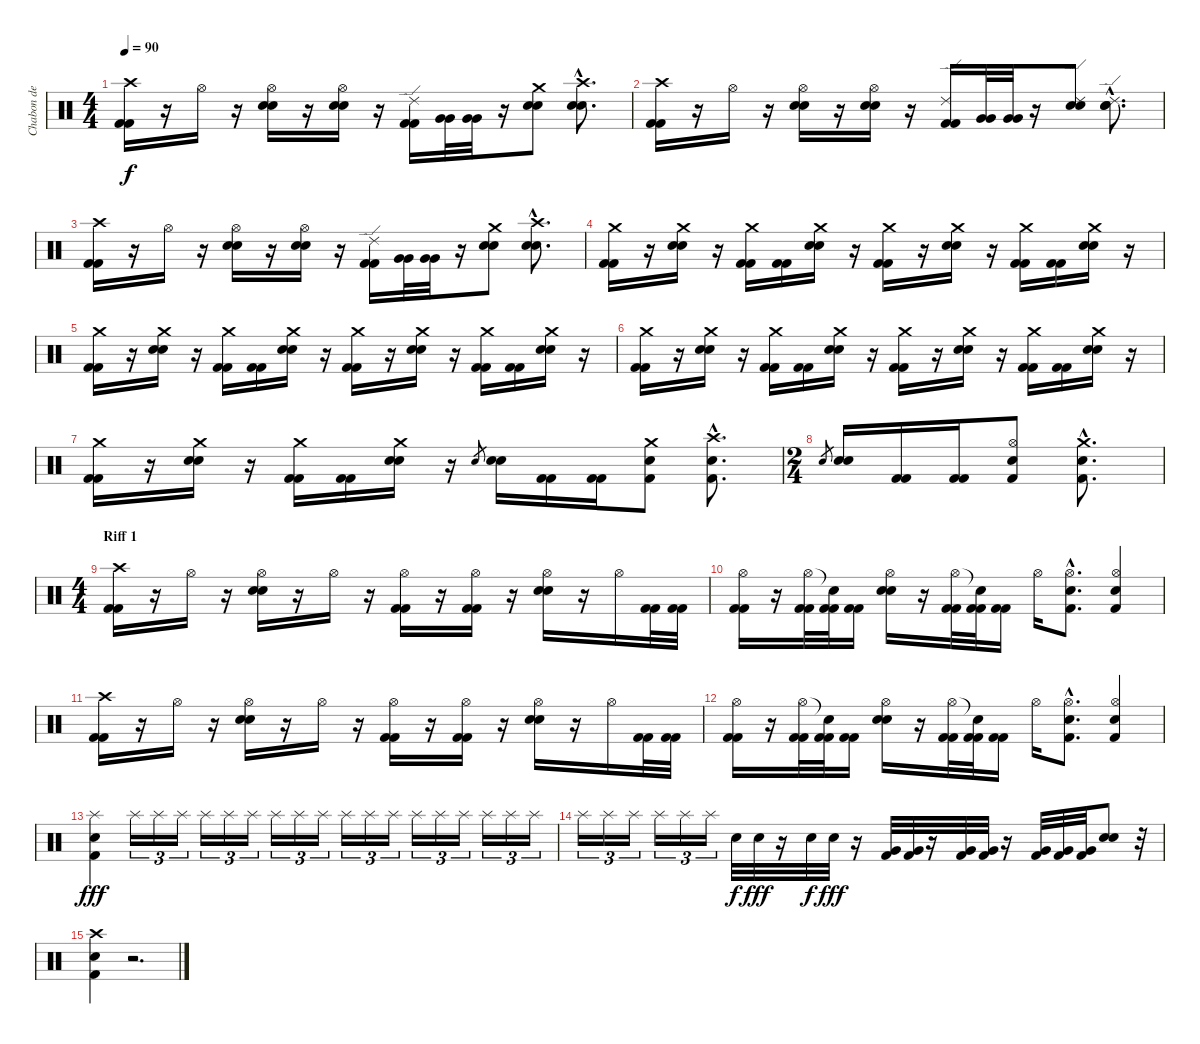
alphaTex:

\track ("Chabon de Vorax" "Chabon de ") {instrument percussion}
\staff {score}
\articulation defaults
\ts (4 4)
\tempo 90
\clef neutral
\ks c
("Crash high (hit)" "Kick (hit) 2" "Kick (hit) 2").16{dy f} r.16 "Hi-Hat (open)".16 r.16 ("Hi-Hat (open)" "Snare (hit) 2" "Snare (hit) 2").16 r.16 ("Hi-Hat (open)" "Snare (hit) 2" "Snare (hit) 2").16 r.16 ("Ride (edge) 2" "Kick (hit) 2" "Kick (hit) 2").16 ("Very Low Tom (hit)" "Very Low Tom (hit)").32 ("Very Low Tom (hit)" "Very Low Tom (hit)").32 r.16 ("Crash medium (hit)" "Snare (hit) 2" "Snare (hit) 2").8 ("Crash high (hit)"{hac} "Snare (hit) 2"{hac} "Snare (hit) 2"{hac}).8{d} |
("Crash high (hit)" "Kick (hit) 2" "Kick (hit) 2").16 r.16 "Hi-Hat (open)".16 r.16 ("Hi-Hat (open)" "Snare (hit) 2" "Snare (hit) 2").16 r.16 ("Hi-Hat (open)" "Snare (hit) 2" "Snare (hit) 2").16 r.16 ("Ride (edge) 2" "Kick (hit) 2" "Kick (hit) 2").16 ("Very Low Tom (hit)" "Very Low Tom (hit)").32 ("Very Low Tom (hit)" "Very Low Tom (hit)").32 r.16 ("Ride (edge) 2" "Snare (hit) 2" "Snare (hit) 2").8 ("Ride (edge) 2"{hac} "Snare (hit) 2"{hac} "Snare (hit) 2"{hac}).8{d} |
("Crash high (hit)" "Kick (hit) 2" "Kick (hit) 2").16 r.16 "Hi-Hat (open)".16 r.16 ("Hi-Hat (open)" "Snare (hit) 2" "Snare (hit) 2").16 r.16 ("Hi-Hat (open)" "Snare (hit) 2" "Snare (hit) 2").16 r.16 ("Ride (edge) 2" "Kick (hit) 2" "Kick (hit) 2").16 ("Very Low Tom (hit)" "Very Low Tom (hit)").32 ("Very Low Tom (hit)" "Very Low Tom (hit)").32 r.16 ("Crash medium (hit)" "Snare (hit) 2" "Snare (hit) 2").8 ("Crash high (hit)"{hac} "Snare (hit) 2"{hac} "Snare (hit) 2"{hac}).8{d} |
("Crash medium (hit)" "Kick (hit) 2" "Kick (hit) 2").16 r.16 ("Crash medium (hit)" "Snare (hit) 2" "Snare (hit) 2").16 r.16 ("Crash medium (hit)" "Kick (hit) 2" "Kick (hit) 2").16 ("Kick (hit) 2" "Kick (hit) 2").16 ("Crash medium (hit)" "Snare (hit) 2" "Snare (hit) 2").16 r.16 ("Crash medium (hit)" "Kick (hit) 2" "Kick (hit) 2").16 r.16 ("Crash medium (hit)" "Snare (hit) 2" "Snare (hit) 2").16 r.16 ("Crash medium (hit)" "Kick (hit) 2" "Kick (hit) 2").16 ("Kick (hit) 2" "Kick (hit) 2").16 ("Crash medium (hit)" "Snare (hit) 2" "Snare (hit) 2").16 r.16 |
("Crash medium (hit)" "Kick (hit) 2" "Kick (hit) 2").16 r.16 ("Crash medium (hit)" "Snare (hit) 2" "Snare (hit) 2").16 r.16 ("Crash medium (hit)" "Kick (hit) 2" "Kick (hit) 2").16 ("Kick (hit) 2" "Kick (hit) 2").16 ("Crash medium (hit)" "Snare (hit) 2" "Snare (hit) 2").16 r.16 ("Crash medium (hit)" "Kick (hit) 2" "Kick (hit) 2").16 r.16 ("Crash medium (hit)" "Snare (hit) 2" "Snare (hit) 2").16 r.16 ("Crash medium (hit)" "Kick (hit) 2" "Kick (hit) 2").16 ("Kick (hit) 2" "Kick (hit) 2").16 ("Crash medium (hit)" "Snare (hit) 2" "Snare (hit) 2").16 r.16 |
("Crash medium (hit)" "Kick (hit) 2" "Kick (hit) 2").16 r.16 ("Crash medium (hit)" "Snare (hit) 2" "Snare (hit) 2").16 r.16 ("Crash medium (hit)" "Kick (hit) 2" "Kick (hit) 2").16 ("Kick (hit) 2" "Kick (hit) 2").16 ("Crash medium (hit)" "Snare (hit) 2" "Snare (hit) 2").16 r.16 ("Crash medium (hit)" "Kick (hit) 2" "Kick (hit) 2").16 r.16 ("Crash medium (hit)" "Snare (hit) 2" "Snare (hit) 2").16 r.16 ("Crash medium (hit)" "Kick (hit) 2" "Kick (hit) 2").16 ("Kick (hit) 2" "Kick (hit) 2").16 ("Crash medium (hit)" "Snare (hit) 2" "Snare (hit) 2").16 r.16 |
("Crash medium (hit)" "Kick (hit) 2" "Kick (hit) 2").16 r.16 ("Crash medium (hit)" "Snare (hit) 2" "Snare (hit) 2").16 r.16 ("Crash medium (hit)" "Kick (hit) 2" "Kick (hit) 2").16 ("Kick (hit) 2" "Kick (hit) 2").16 ("Crash medium (hit)" "Snare (hit) 2" "Snare (hit) 2").16 r.16 "Snare (hit) 2".8{gr} ("Snare (hit) 2" "Snare (hit) 2").16 ("Kick (hit) 2" "Kick (hit) 2").16 ("Kick (hit) 2" "Kick (hit) 2").16 ("Crash medium (hit)" "Snare (hit) 2" "Kick (hit) 2").8 ("Crash high (hit)"{hac} "Snare (hit) 2"{hac} "Kick (hit) 2"{hac}).8{d} |
\ts (2 4)
"Snare (hit) 2".8{gr} ("Snare (hit) 2" "Snare (hit) 2").16 ("Kick (hit) 2" "Kick (hit) 2").16 ("Kick (hit) 2" "Kick (hit) 2").16 ("Hi-Hat (open)" "Snare (hit) 2" "Kick (hit) 2").8 ("Crash medium (hit)"{hac} "Snare (hit) 2"{hac} "Kick (hit) 2"{hac}).8{d} |
\ts (4 4)
\section ("" "Riff 1")
("Crash high (hit)" "Kick (hit) 2" "Kick (hit) 2").16 r.16 "Hi-Hat (open)".16 r.16 ("Hi-Hat (open)" "Snare (hit) 2" "Snare (hit) 2").16 r.16 "Hi-Hat (open)".16 r.16 ("Hi-Hat (open)" "Kick (hit) 2" "Kick (hit) 2").16 r.16 ("Hi-Hat (open)" "Kick (hit) 2" "Kick (hit) 2").16 r.16 ("Hi-Hat (open)" "Snare (hit) 2" "Snare (hit) 2").16 r.16 "Hi-Hat (open)".16 ("Kick (hit) 2" "Kick (hit) 2").32 ("Kick (hit) 2" "Kick (hit) 2").32 |
("Hi-Hat (open)" "Kick (hit) 2" "Kick (hit) 2").16 r.16 ("Hi-Hat (open)" "Kick (hit) 2" "Kick (hit) 2").32 ("Snare (hit)"{t} "Kick (hit) 2" "Kick (hit) 2").32 ("Kick (hit) 2" "Kick (hit) 2").16 ("Hi-Hat (open)" "Snare (hit) 2" "Snare (hit) 2").16 r.16 ("Hi-Hat (open)" "Kick (hit) 2" "Kick (hit) 2").32 ("Snare (hit)"{t} "Kick (hit) 2" "Kick (hit) 2").32 ("Kick (hit) 2" "Kick (hit) 2").16 "Hi-Hat (open)".16 ("Hi-Hat (open)"{hac} "Snare (hit) 2"{hac} "Kick (hit) 2"{hac}).8{d} ("Hi-Hat (open)" "Snare (hit) 2" "Kick (hit) 2").4 |
("Crash high (hit)" "Kick (hit) 2" "Kick (hit) 2").16 r.16 "Hi-Hat (open)".16 r.16 ("Hi-Hat (open)" "Snare (hit) 2" "Snare (hit) 2").16 r.16 "Hi-Hat (open)".16 r.16 ("Hi-Hat (open)" "Kick (hit) 2" "Kick (hit) 2").16 r.16 ("Hi-Hat (open)" "Kick (hit) 2" "Kick (hit) 2").16 r.16 ("Hi-Hat (open)" "Snare (hit) 2" "Snare (hit) 2").16 r.16 "Hi-Hat (open)".16 ("Kick (hit) 2" "Kick (hit) 2").32 ("Kick (hit) 2" "Kick (hit) 2").32 |
("Hi-Hat (open)" "Kick (hit) 2" "Kick (hit) 2").16 r.16 ("Hi-Hat (open)" "Kick (hit) 2" "Kick (hit) 2").32 ("Snare (hit)"{t} "Kick (hit) 2" "Kick (hit) 2").32 ("Kick (hit) 2" "Kick (hit) 2").16 ("Hi-Hat (open)" "Snare (hit) 2" "Snare (hit) 2").16 r.16 ("Hi-Hat (open)" "Kick (hit) 2" "Kick (hit) 2").32 ("Snare (hit)"{t} "Kick (hit) 2" "Kick (hit) 2").32 ("Kick (hit) 2" "Kick (hit) 2").16 "Hi-Hat (open)".16 ("Hi-Hat (open)"{hac} "Snare (hit) 2"{hac} "Kick (hit) 2"{hac}).8{d} ("Hi-Hat (open)" "Snare (hit) 2" "Kick (hit) 2").4 |
("Splash (hit)" "Snare (hit) 2" "Kick (hit) 2").4{dy fff} "Splash (hit)".16{tu (3 2)} "Splash (hit)".16{tu (3 2)} "Splash (hit)".16{tu (3 2)} "Splash (hit)".16{tu (3 2)} "Splash (hit)".16{tu (3 2)} "Splash (hit)".16{tu (3 2)} "Splash (hit)".16{tu (3 2)} "Splash (hit)".16{tu (3 2)} "Splash (hit)".16{tu (3 2)} "Splash (hit)".16{tu (3 2)} "Splash (hit)".16{tu (3 2)} "Splash (hit)".16{tu (3 2)} "Splash (hit)".16{tu (3 2)} "Splash (hit)".16{tu (3 2)} "Splash (hit)".16{tu (3 2)} "Splash (hit)".16{tu (3 2)} "Splash (hit)".16{tu (3 2)} "Splash (hit)".16{tu (3 2)} |
"Splash (hit)".16{tu (3 2)} "Splash (hit)".16{tu (3 2)} "Splash (hit)".16{tu (3 2)} "Splash (hit)".16{tu (3 2)} "Splash (hit)".16{tu (3 2)} "Splash (hit)".16{tu (3 2)} "Snare (hit) 2".32{dy f} "Snare (hit) 2".32{dy fff} r.16 "Snare (hit) 2".32{dy f} "Snare (hit) 2".32{dy fff} r.16 ("Very Low Tom (hit)" "Kick (hit) 2").32 ("Very Low Tom (hit)" "Kick (hit) 2").32 r.16 ("Very Low Tom (hit)" "Kick (hit) 2").32 ("Very Low Tom (hit)" "Kick (hit) 2").32 r.16 ("Very Low Tom (hit)" "Kick (hit) 2").32 ("Very Low Tom (hit)" "Kick (hit) 2").32 ("Very Low Tom (hit)" "Kick (hit) 2").32 ("Snare (hit) 2" "Snare (hit) 2").8 r.32 |
("Crash high (hit)" "Snare (hit) 2" "Kick (hit) 2").4 r.2{d}
